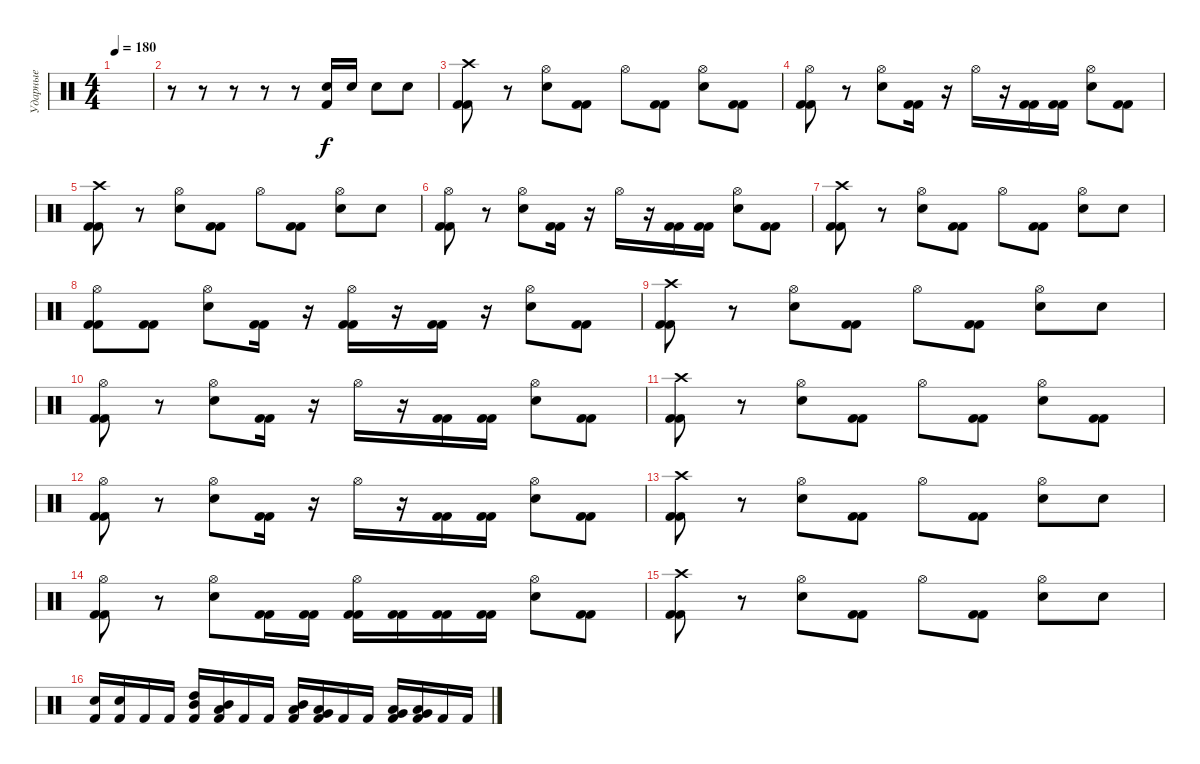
\track ("Ударные" "Ударные") {instrument percussion}
\staff {score}
\articulation defaults
\ts (4 4)
\tempo 180
\clef neutral
\ks c
|
r.8 r.8 r.8 r.8 r.8 ("Electric Snare (hit)" "Kick (hit) 2").16 "Electric Snare (hit)".16 "Electric Snare (hit)".8 "Electric Snare (hit)".8 |
("Crash high (hit)" "Kick (hit) 2" "Kick (hit) 2").8 r.8 ("Hi-Hat (open)" "Electric Snare (hit)").8 ("Kick (hit) 2" "Kick (hit) 2").8 "Hi-Hat (open)".8 ("Kick (hit) 2" "Kick (hit) 2").8 ("Hi-Hat (open)" "Electric Snare (hit)").8 ("Kick (hit) 2" "Kick (hit) 2").8 |
("Hi-Hat (open)" "Kick (hit) 2" "Kick (hit) 2").8 r.8 ("Hi-Hat (open)" "Electric Snare (hit)").8 ("Kick (hit) 2" "Kick (hit) 2").16 r.16 "Hi-Hat (open)".16 r.16 ("Kick (hit) 2" "Kick (hit) 2").16 ("Kick (hit) 2" "Kick (hit) 2").16 ("Hi-Hat (open)" "Electric Snare (hit)").8 ("Kick (hit) 2" "Kick (hit) 2").8 |
("Crash high (hit)" "Kick (hit) 2" "Kick (hit) 2").8 r.8 ("Hi-Hat (open)" "Electric Snare (hit)").8 ("Kick (hit) 2" "Kick (hit) 2").8 "Hi-Hat (open)".8 ("Kick (hit) 2" "Kick (hit) 2").8 ("Hi-Hat (open)" "Electric Snare (hit)").8 "Electric Snare (hit)".8 |
("Hi-Hat (open)" "Kick (hit) 2" "Kick (hit) 2").8 r.8 ("Hi-Hat (open)" "Electric Snare (hit)").8 ("Kick (hit) 2" "Kick (hit) 2").16 r.16 "Hi-Hat (open)".16 r.16 ("Kick (hit) 2" "Kick (hit) 2").16 ("Kick (hit) 2" "Kick (hit) 2").16 ("Hi-Hat (open)" "Electric Snare (hit)").8 ("Kick (hit) 2" "Kick (hit) 2").8 |
("Crash high (hit)" "Kick (hit) 2" "Kick (hit) 2").8 r.8 ("Hi-Hat (open)" "Electric Snare (hit)").8 ("Kick (hit) 2" "Kick (hit) 2").8 "Hi-Hat (open)".8 ("Kick (hit) 2" "Kick (hit) 2").8 ("Hi-Hat (open)" "Electric Snare (hit)").8 "Electric Snare (hit)".8 |
("Hi-Hat (open)" "Kick (hit) 2" "Kick (hit) 2").8 ("Kick (hit) 2" "Kick (hit) 2").8 ("Hi-Hat (open)" "Electric Snare (hit)").8 ("Kick (hit) 2" "Kick (hit) 2").16 r.16 ("Hi-Hat (open)" "Kick (hit) 2" "Kick (hit) 2").16 r.16 ("Kick (hit) 2" "Kick (hit) 2").16 r.16 ("Hi-Hat (open)" "Electric Snare (hit)").8 ("Kick (hit) 2" "Kick (hit) 2").8 |
("Crash high (hit)" "Kick (hit) 2" "Kick (hit) 2").8 r.8 ("Hi-Hat (open)" "Electric Snare (hit)").8 ("Kick (hit) 2" "Kick (hit) 2").8 "Hi-Hat (open)".8 ("Kick (hit) 2" "Kick (hit) 2").8 ("Hi-Hat (open)" "Electric Snare (hit)").8 "Electric Snare (hit)".8 |
("Hi-Hat (open)" "Kick (hit) 2" "Kick (hit) 2").8 r.8 ("Hi-Hat (open)" "Electric Snare (hit)").8 ("Kick (hit) 2" "Kick (hit) 2").16 r.16 "Hi-Hat (open)".16 r.16 ("Kick (hit) 2" "Kick (hit) 2").16 ("Kick (hit) 2" "Kick (hit) 2").16 ("Hi-Hat (open)" "Electric Snare (hit)").8 ("Kick (hit) 2" "Kick (hit) 2").8 |
("Crash high (hit)" "Kick (hit) 2" "Kick (hit) 2").8 r.8 ("Hi-Hat (open)" "Electric Snare (hit)").8 ("Kick (hit) 2" "Kick (hit) 2").8 "Hi-Hat (open)".8 ("Kick (hit) 2" "Kick (hit) 2").8 ("Hi-Hat (open)" "Electric Snare (hit)").8 ("Kick (hit) 2" "Kick (hit) 2").8 |
("Hi-Hat (open)" "Kick (hit) 2" "Kick (hit) 2").8 r.8 ("Hi-Hat (open)" "Electric Snare (hit)").8 ("Kick (hit) 2" "Kick (hit) 2").16 r.16 "Hi-Hat (open)".16 r.16 ("Kick (hit) 2" "Kick (hit) 2").16 ("Kick (hit) 2" "Kick (hit) 2").16 ("Hi-Hat (open)" "Electric Snare (hit)").8 ("Kick (hit) 2" "Kick (hit) 2").8 |
("Crash high (hit)" "Kick (hit) 2" "Kick (hit) 2").8 r.8 ("Hi-Hat (open)" "Electric Snare (hit)").8 ("Kick (hit) 2" "Kick (hit) 2").8 "Hi-Hat (open)".8 ("Kick (hit) 2" "Kick (hit) 2").8 ("Hi-Hat (open)" "Electric Snare (hit)").8 "Electric Snare (hit)".8 |
("Hi-Hat (open)" "Kick (hit) 2" "Kick (hit) 2").8 r.8 ("Hi-Hat (open)" "Electric Snare (hit)").8 ("Kick (hit) 2" "Kick (hit) 2").16 ("Kick (hit) 2" "Kick (hit) 2").16 ("Hi-Hat (open)" "Kick (hit) 2" "Kick (hit) 2").16 ("Kick (hit) 2" "Kick (hit) 2").16 ("Kick (hit) 2" "Kick (hit) 2").16 ("Kick (hit) 2" "Kick (hit) 2").16 ("Hi-Hat (open)" "Electric Snare (hit)").8 ("Kick (hit) 2" "Kick (hit) 2").8 |
("Crash high (hit)" "Kick (hit) 2" "Kick (hit) 2").8 r.8 ("Hi-Hat (open)" "Electric Snare (hit)").8 ("Kick (hit) 2" "Kick (hit) 2").8 "Hi-Hat (open)".8 ("Kick (hit) 2" "Kick (hit) 2").8 ("Hi-Hat (open)" "Electric Snare (hit)").8 "Electric Snare (hit)".8 |
("Electric Snare (hit)" "Kick (hit) 2").16 ("Electric Snare (hit)" "Kick (hit) 2").16 "Kick (hit) 2".16 "Kick (hit) 2".16 ("High Tom (hit)" "Mid Tom (hit)" "Kick (hit) 2").16 ("Mid Tom (hit)" "Low Tom (hit)" "Kick (hit) 2").16 "Kick (hit) 2".16 "Kick (hit) 2".16 ("Mid Tom (hit)" "Low Tom (hit)" "Kick (hit) 2").16 ("Low Tom (hit)" "Very Low Tom (hit)" "Kick (hit) 2").16 "Kick (hit) 2".16 "Kick (hit) 2".16 ("Low Tom (hit)" "Very Low Tom (hit)" "Kick (hit) 2").16 ("Very Low Tom (hit)" "Low Floor Tom (hit)" "Kick (hit) 2").16 "Kick (hit) 2".16 "Kick (hit) 2".16
